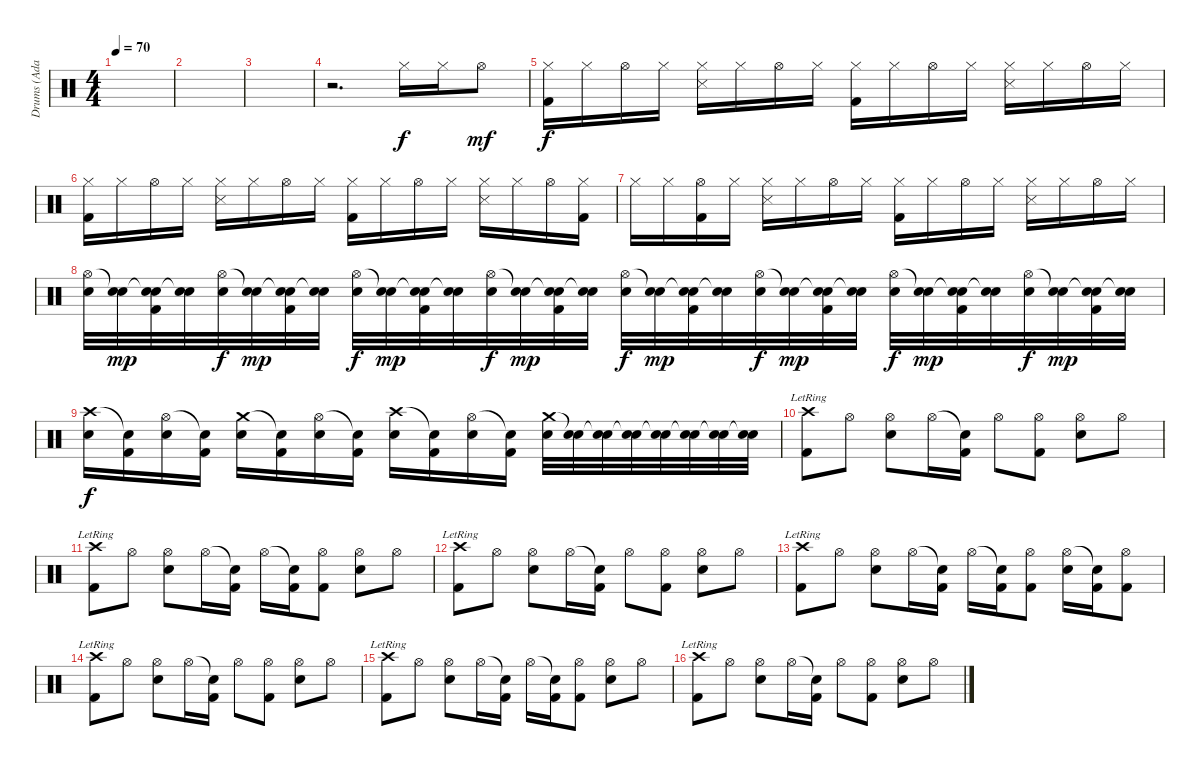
\track ("Drums (Adam) " "Drums (Ada") {instrument percussion}
\staff {score}
\articulation defaults
\ts (4 4)
\tempo 70
\clef neutral
\ks c
|
|
|
r.2{d} "Hi-Hat (closed)".16 "Hi-Hat (closed)".16 "Hi-Hat (open)".8{dy mf} |
("Hi-Hat (closed)" "Kick (hit) 2").16{dy f} "Hi-Hat (closed)".16 "Hi-Hat (open)".16 "Hi-Hat (closed)".16 ("Hi-Hat (closed)" "Snare (side stick) 3").16 "Hi-Hat (closed)".16 "Hi-Hat (open)".16 "Hi-Hat (closed)".16 ("Hi-Hat (closed)" "Kick (hit) 2").16 "Hi-Hat (closed)".16 "Hi-Hat (open)".16 "Hi-Hat (closed)".16 ("Hi-Hat (closed)" "Snare (side stick) 3").16 "Hi-Hat (closed)".16 "Hi-Hat (open)".16 "Hi-Hat (closed)".16 |
("Hi-Hat (closed)" "Kick (hit) 2").16 "Hi-Hat (closed)".16 "Hi-Hat (open)".16 "Hi-Hat (closed)".16 ("Hi-Hat (closed)" "Snare (side stick) 3").16 "Hi-Hat (closed)".16 "Hi-Hat (open)".16 "Hi-Hat (closed)".16 ("Hi-Hat (closed)" "Kick (hit) 2").16 "Hi-Hat (closed)".16 "Hi-Hat (open)".16 "Hi-Hat (closed)".16 ("Hi-Hat (closed)" "Snare (side stick) 3").16 "Hi-Hat (closed)".16 "Hi-Hat (open)".16 ("Hi-Hat (closed)" "Kick (hit) 2").16 |
"Hi-Hat (closed)".16 "Hi-Hat (closed)".16 ("Hi-Hat (open)" "Kick (hit) 2").16 "Hi-Hat (closed)".16 ("Hi-Hat (closed)" "Snare (side stick) 3").16 "Hi-Hat (closed)".16 "Hi-Hat (open)".16 "Hi-Hat (closed)".16 ("Hi-Hat (closed)" "Kick (hit) 2").16 "Hi-Hat (closed)".16 "Hi-Hat (open)".16 "Hi-Hat (closed)".16 ("Hi-Hat (closed)" "Snare (side stick) 3").16 "Hi-Hat (closed)".16 "Hi-Hat (open)".16 "Hi-Hat (closed)".16 |
("Hi-Hat (open)" "Electric Snare (hit)").32 ("Snare (hit)"{t} "Electric Snare (hit)").32{dy mp} ("Snare (hit)"{t} "Electric Snare (hit)" "Kick (hit) 2").32 ("Snare (hit)"{t} "Electric Snare (hit)").32 ("Hi-Hat (open)" "Electric Snare (hit)").32{dy f} ("Snare (hit)"{t} "Electric Snare (hit)").32{dy mp} ("Snare (hit)"{t} "Electric Snare (hit)" "Kick (hit) 2").32 ("Snare (hit)"{t} "Electric Snare (hit)").32 ("Hi-Hat (open)" "Electric Snare (hit)").32{dy f} ("Snare (hit)"{t} "Electric Snare (hit)").32{dy mp} ("Snare (hit)"{t} "Electric Snare (hit)" "Kick (hit) 2").32 ("Snare (hit)"{t} "Electric Snare (hit)").32 ("Hi-Hat (open)" "Electric Snare (hit)").32{dy f} ("Snare (hit)"{t} "Electric Snare (hit)").32{dy mp} ("Snare (hit)"{t} "Electric Snare (hit)" "Kick (hit) 2").32 ("Snare (hit)"{t} "Electric Snare (hit)").32 ("Hi-Hat (open)" "Electric Snare (hit)").32{dy f} ("Snare (hit)"{t} "Electric Snare (hit)").32{dy mp} ("Snare (hit)"{t} "Electric Snare (hit)" "Kick (hit) 2").32 ("Snare (hit)"{t} "Electric Snare (hit)").32 ("Hi-Hat (open)" "Electric Snare (hit)").32{dy f} ("Snare (hit)"{t} "Electric Snare (hit)").32{dy mp} ("Snare (hit)"{t} "Electric Snare (hit)" "Kick (hit) 2").32 ("Snare (hit)"{t} "Electric Snare (hit)").32 ("Hi-Hat (open)" "Electric Snare (hit)").32{dy f} ("Snare (hit)"{t} "Electric Snare (hit)").32{dy mp} ("Snare (hit)"{t} "Electric Snare (hit)" "Kick (hit) 2").32 ("Snare (hit)"{t} "Electric Snare (hit)").32 ("Hi-Hat (open)" "Electric Snare (hit)").32{dy f} ("Snare (hit)"{t} "Electric Snare (hit)").32{dy mp} ("Snare (hit)"{t} "Electric Snare (hit)" "Kick (hit) 2").32 ("Snare (hit)"{t} "Electric Snare (hit)").32 |
("Crash high (hit)" "Electric Snare (hit)").16{dy f} ("Snare (hit)"{t} "Kick (hit) 2").16 ("Hi-Hat (open)" "Electric Snare (hit)").16 ("Snare (hit)"{t} "Kick (hit) 2").16 ("Crash medium (hit)" "Electric Snare (hit)").16 ("Snare (hit)"{t} "Kick (hit) 2").16 ("Hi-Hat (open)" "Electric Snare (hit)").16 ("Snare (hit)"{t} "Kick (hit) 2").16 ("Crash high (hit)" "Electric Snare (hit)").16 ("Snare (hit)"{t} "Kick (hit) 2").16 ("Hi-Hat (open)" "Electric Snare (hit)").16 ("Snare (hit)"{t} "Kick (hit) 2").16 ("Crash medium (hit)" "Electric Snare (hit)").32 ("Snare (hit)"{t} "Electric Snare (hit)").32 ("Snare (hit)"{t} "Electric Snare (hit)").32 ("Snare (hit)"{t} "Electric Snare (hit)").32 ("Snare (hit)"{t} "Electric Snare (hit)").32 ("Snare (hit)"{t} "Electric Snare (hit)").32 ("Snare (hit)"{t} "Electric Snare (hit)").32 ("Snare (hit)"{t} "Electric Snare (hit)").32 |
("Crash high (hit)"{lr} "Kick (hit) 2").8 "Hi-Hat (open)".8 ("Hi-Hat (open)" "Electric Snare (hit)").8 "Hi-Hat (open)".16 ("Snare (hit)"{t} "Kick (hit) 2").16 "Hi-Hat (open)".8 ("Hi-Hat (open)" "Kick (hit) 2").8 ("Hi-Hat (open)" "Electric Snare (hit)").8 "Hi-Hat (open)".8 |
("Crash high (hit)"{lr} "Kick (hit) 2").8 "Hi-Hat (open)".8 ("Hi-Hat (open)" "Electric Snare (hit)").8 "Hi-Hat (open)".16 ("Snare (hit)"{t} "Kick (hit) 2").16 "Hi-Hat (open)".16 ("Snare (hit)"{t} "Kick (hit) 2").16 ("Hi-Hat (open)" "Kick (hit) 2").8 ("Hi-Hat (open)" "Electric Snare (hit)").8 "Hi-Hat (open)".8 |
("Crash high (hit)"{lr} "Kick (hit) 2").8 "Hi-Hat (open)".8 ("Hi-Hat (open)" "Electric Snare (hit)").8 "Hi-Hat (open)".16 ("Snare (hit)"{t} "Kick (hit) 2").16 "Hi-Hat (open)".8 ("Hi-Hat (open)" "Kick (hit) 2").8 ("Hi-Hat (open)" "Electric Snare (hit)").8 "Hi-Hat (open)".8 |
("Crash high (hit)"{lr} "Kick (hit) 2").8 "Hi-Hat (open)".8 ("Hi-Hat (open)" "Electric Snare (hit)").8 "Hi-Hat (open)".16 ("Snare (hit)"{t} "Kick (hit) 2").16 "Hi-Hat (open)".16 ("Snare (hit)"{t} "Kick (hit) 2").16 ("Hi-Hat (open)" "Kick (hit) 2").8 ("Hi-Hat (open)" "Electric Snare (hit)").16 ("Snare (hit)"{t} "Kick (hit) 2").16 ("Hi-Hat (open)" "Kick (hit) 2").8 |
("Crash high (hit)"{lr} "Kick (hit) 2").8 "Hi-Hat (open)".8 ("Hi-Hat (open)" "Electric Snare (hit)").8 "Hi-Hat (open)".16 ("Snare (hit)"{t} "Kick (hit) 2").16 "Hi-Hat (open)".8 ("Hi-Hat (open)" "Kick (hit) 2").8 ("Hi-Hat (open)" "Electric Snare (hit)").8 "Hi-Hat (open)".8 |
("Crash high (hit)"{lr} "Kick (hit) 2").8 "Hi-Hat (open)".8 ("Hi-Hat (open)" "Electric Snare (hit)").8 "Hi-Hat (open)".16 ("Snare (hit)"{t} "Kick (hit) 2").16 "Hi-Hat (open)".16 ("Snare (hit)"{t} "Kick (hit) 2").16 ("Hi-Hat (open)" "Kick (hit) 2").8 ("Hi-Hat (open)" "Electric Snare (hit)").8 "Hi-Hat (open)".8 |
("Crash high (hit)"{lr} "Kick (hit) 2").8 "Hi-Hat (open)".8 ("Hi-Hat (open)" "Electric Snare (hit)").8 "Hi-Hat (open)".16 ("Snare (hit)"{t} "Kick (hit) 2").16 "Hi-Hat (open)".8 ("Hi-Hat (open)" "Kick (hit) 2").8 ("Hi-Hat (open)" "Electric Snare (hit)").8 "Hi-Hat (open)".8
